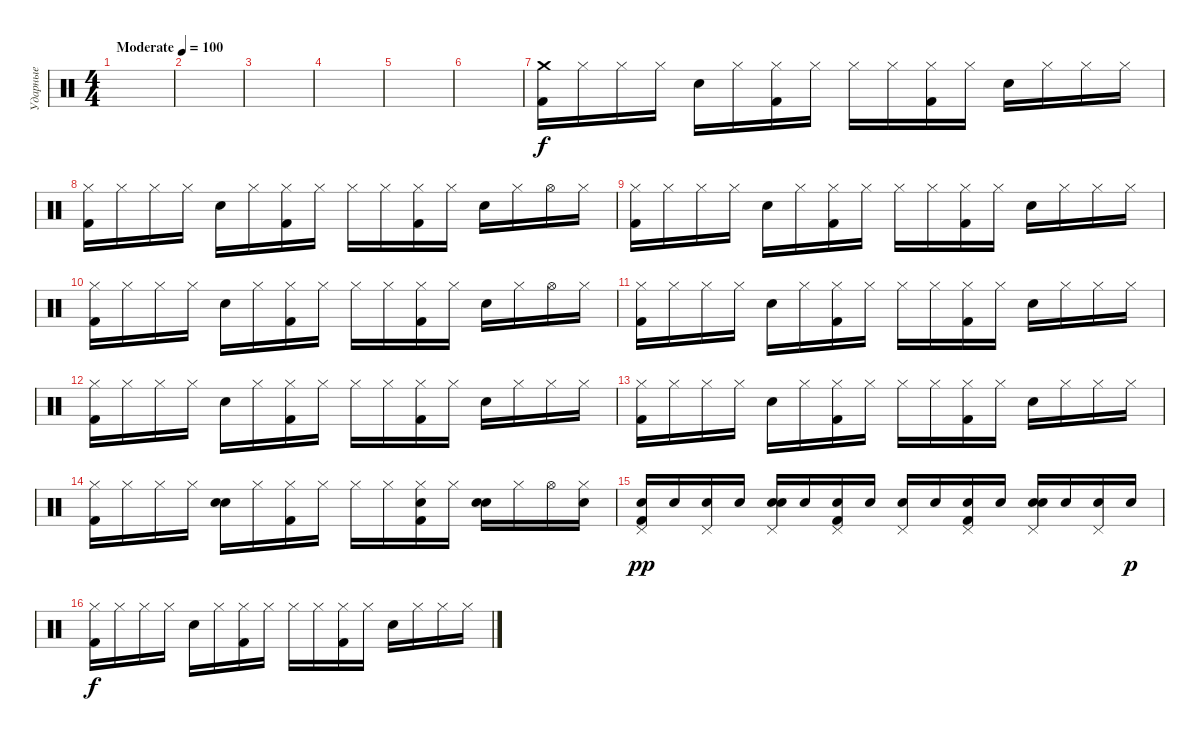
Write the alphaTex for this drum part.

\track ("Ударные" "Ударные") {instrument percussion}
\staff {score}
\articulation defaults
\ts (4 4)
\tempo (100 "Moderate")
\clef neutral
\ks c
|
|
|
|
|
|
("Crash medium (hit)" "Kick (hit) 2").16 "Hi-Hat (closed)".16 "Hi-Hat (closed)".16 "Hi-Hat (closed)".16 "Electric Snare (hit)".16 "Hi-Hat (closed)".16 ("Hi-Hat (closed)" "Kick (hit) 2").16 "Hi-Hat (closed)".16 "Hi-Hat (closed)".16 "Hi-Hat (closed)".16 ("Hi-Hat (closed)" "Kick (hit) 2").16 "Hi-Hat (closed)".16 "Electric Snare (hit)".16 "Hi-Hat (closed)".16 "Hi-Hat (closed)".16 "Hi-Hat (closed)".16 |
("Hi-Hat (closed)" "Kick (hit) 2").16 "Hi-Hat (closed)".16 "Hi-Hat (closed)".16 "Hi-Hat (closed)".16 "Electric Snare (hit)".16 "Hi-Hat (closed)".16 ("Hi-Hat (closed)" "Kick (hit) 2").16 "Hi-Hat (closed)".16 "Hi-Hat (closed)".16 "Hi-Hat (closed)".16 ("Hi-Hat (closed)" "Kick (hit) 2").16 "Hi-Hat (closed)".16 "Electric Snare (hit)".16 "Hi-Hat (closed)".16 "Hi-Hat (open)".16 "Hi-Hat (closed)".16 |
("Hi-Hat (closed)" "Kick (hit) 2").16 "Hi-Hat (closed)".16 "Hi-Hat (closed)".16 "Hi-Hat (closed)".16 "Electric Snare (hit)".16 "Hi-Hat (closed)".16 ("Hi-Hat (closed)" "Kick (hit) 2").16 "Hi-Hat (closed)".16 "Hi-Hat (closed)".16 "Hi-Hat (closed)".16 ("Hi-Hat (closed)" "Kick (hit) 2").16 "Hi-Hat (closed)".16 "Electric Snare (hit)".16 "Hi-Hat (closed)".16 "Hi-Hat (closed)".16 "Hi-Hat (closed)".16 |
("Hi-Hat (closed)" "Kick (hit) 2").16 "Hi-Hat (closed)".16 "Hi-Hat (closed)".16 "Hi-Hat (closed)".16 "Electric Snare (hit)".16 "Hi-Hat (closed)".16 ("Hi-Hat (closed)" "Kick (hit) 2").16 "Hi-Hat (closed)".16 "Hi-Hat (closed)".16 "Hi-Hat (closed)".16 ("Hi-Hat (closed)" "Kick (hit) 2").16 "Hi-Hat (closed)".16 "Electric Snare (hit)".16 "Hi-Hat (closed)".16 "Hi-Hat (open)".16 "Hi-Hat (closed)".16 |
("Hi-Hat (closed)" "Kick (hit) 2").16 "Hi-Hat (closed)".16 "Hi-Hat (closed)".16 "Hi-Hat (closed)".16 "Electric Snare (hit)".16 "Hi-Hat (closed)".16 ("Hi-Hat (closed)" "Kick (hit) 2").16 "Hi-Hat (closed)".16 "Hi-Hat (closed)".16 "Hi-Hat (closed)".16 ("Hi-Hat (closed)" "Kick (hit) 2").16 "Hi-Hat (closed)".16 "Electric Snare (hit)".16 "Hi-Hat (closed)".16 "Hi-Hat (closed)".16 "Hi-Hat (closed)".16 |
("Hi-Hat (closed)" "Kick (hit) 2").16 "Hi-Hat (closed)".16 "Hi-Hat (closed)".16 "Hi-Hat (closed)".16 "Electric Snare (hit)".16 "Hi-Hat (closed)".16 ("Hi-Hat (closed)" "Kick (hit) 2").16 "Hi-Hat (closed)".16 "Hi-Hat (closed)".16 "Hi-Hat (closed)".16 ("Hi-Hat (closed)" "Kick (hit) 2").16 "Hi-Hat (closed)".16 "Electric Snare (hit)".16 "Hi-Hat (closed)".16 "Hi-Hat (closed)".16 "Hi-Hat (closed)".16 |
("Hi-Hat (closed)" "Kick (hit) 2").16 "Hi-Hat (closed)".16 "Hi-Hat (closed)".16 "Hi-Hat (closed)".16 "Electric Snare (hit)".16 "Hi-Hat (closed)".16 ("Hi-Hat (closed)" "Kick (hit) 2").16 "Hi-Hat (closed)".16 "Hi-Hat (closed)".16 "Hi-Hat (closed)".16 ("Hi-Hat (closed)" "Kick (hit) 2").16 "Hi-Hat (closed)".16 "Electric Snare (hit)".16 "Hi-Hat (closed)".16 "Hi-Hat (closed)".16 "Hi-Hat (closed)".16 |
("Hi-Hat (closed)" "Kick (hit) 2").16 "Hi-Hat (closed)".16 "Hi-Hat (closed)".16 "Hi-Hat (closed)".16 ("Electric Snare (hit)" "Electric Snare (hit)").16 "Hi-Hat (closed)".16 ("Hi-Hat (closed)" "Kick (hit) 2").16 "Hi-Hat (closed)".16 "Hi-Hat (closed)".16 "Hi-Hat (closed)".16 ("Hi-Hat (closed)" "Electric Snare (hit)" "Kick (hit) 2").16 "Hi-Hat (closed)".16 ("Electric Snare (hit)" "Electric Snare (hit)").16 "Hi-Hat (closed)".16 "Hi-Hat (open)".16 ("Hi-Hat (closed)" "Electric Snare (hit)").16 |
("Pedal Hi-Hat (hit)" "Electric Snare (hit)" "Kick (hit) 2").16{dy pp} "Electric Snare (hit)".16 ("Pedal Hi-Hat (hit)" "Electric Snare (hit)").16 "Electric Snare (hit)".16 ("Pedal Hi-Hat (hit)" "Electric Snare (hit)" "Electric Snare (hit)").16 "Electric Snare (hit)".16 ("Pedal Hi-Hat (hit)" "Electric Snare (hit)" "Kick (hit) 2").16 "Electric Snare (hit)".16 ("Pedal Hi-Hat (hit)" "Electric Snare (hit)").16 "Electric Snare (hit)".16 ("Pedal Hi-Hat (hit)" "Electric Snare (hit)" "Kick (hit) 2").16 "Electric Snare (hit)".16 ("Pedal Hi-Hat (hit)" "Electric Snare (hit)" "Electric Snare (hit)").16 "Electric Snare (hit)".16 ("Pedal Hi-Hat (hit)" "Electric Snare (hit)").16 "Electric Snare (hit)".16{dy p} |
("Hi-Hat (closed)" "Kick (hit) 2").16{dy f} "Hi-Hat (closed)".16 "Hi-Hat (closed)".16 "Hi-Hat (closed)".16 "Electric Snare (hit)".16 "Hi-Hat (closed)".16 ("Hi-Hat (closed)" "Kick (hit) 2").16 "Hi-Hat (closed)".16 "Hi-Hat (closed)".16 "Hi-Hat (closed)".16 ("Hi-Hat (closed)" "Kick (hit) 2").16 "Hi-Hat (closed)".16 "Electric Snare (hit)".16 "Hi-Hat (closed)".16 "Hi-Hat (closed)".16 "Hi-Hat (closed)".16
